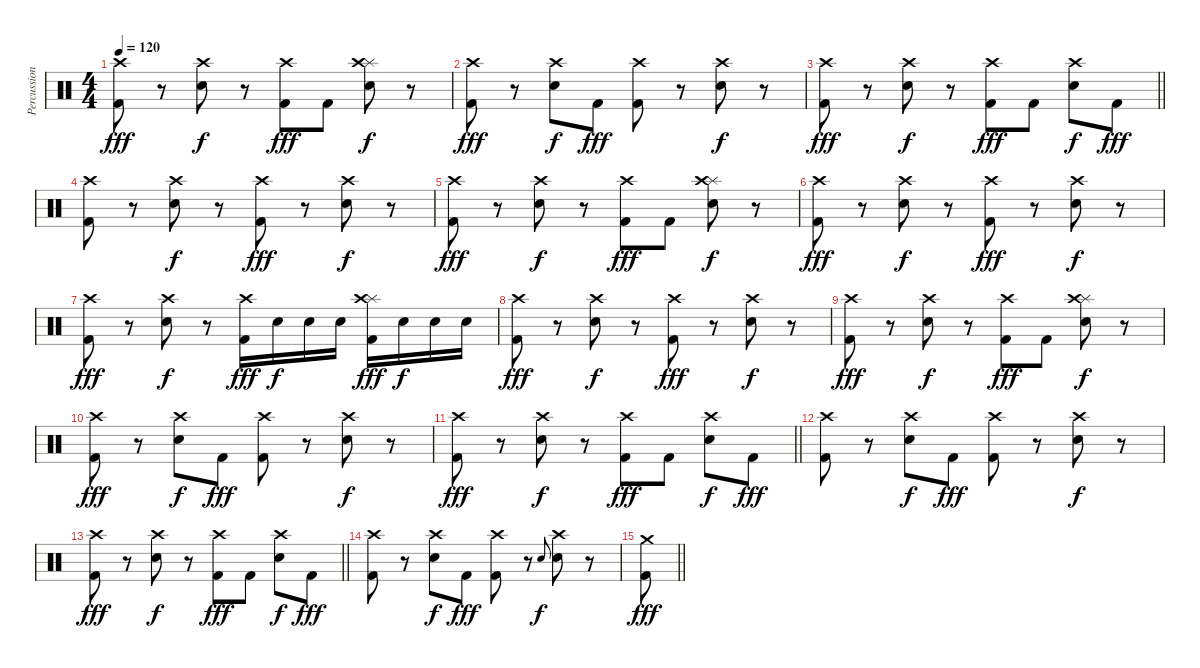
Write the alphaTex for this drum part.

\track ("Percussion" "Percussion") {instrument percussion}
\staff {score}
\articulation defaults
\ts (4 4)
\tempo 120
\clef neutral
\ks c
("Crash high (hit)" "Kick (hit) 2").8{dy fff} r.8 ("Electric Snare (hit)" "Crash high (hit)").8{dy f} r.8 ("Crash high (hit)" "Kick (hit) 2").8{dy fff} "Kick (hit) 2".8 ("Splash (hit)" "Electric Snare (hit)" "Crash high (hit)").8{dy f} r.8 |
("Crash high (hit)" "Kick (hit) 2").8{dy fff} r.8 ("Electric Snare (hit)" "Crash high (hit)").8{dy f} "Kick (hit) 2".8{dy fff} ("Crash high (hit)" "Kick (hit) 2").8 r.8 ("Electric Snare (hit)" "Crash high (hit)").8{dy f} r.8 |
\barLineRight lightlight
("Crash high (hit)" "Kick (hit) 2").8{dy fff} r.8 ("Electric Snare (hit)" "Crash high (hit)").8{dy f} r.8 ("Crash high (hit)" "Kick (hit) 2").8{dy fff} "Kick (hit) 2".8 ("Electric Snare (hit)" "Crash high (hit)").8{dy f} "Kick (hit) 2".8{dy fff} |
("Crash high (hit)" "Kick (hit) 2").8 r.8 ("Electric Snare (hit)" "Crash high (hit)").8{dy f} r.8 ("Crash high (hit)" "Kick (hit) 2").8{dy fff} r.8 ("Electric Snare (hit)" "Crash high (hit)").8{dy f} r.8 |
("Crash high (hit)" "Kick (hit) 2").8{dy fff} r.8 ("Electric Snare (hit)" "Crash high (hit)").8{dy f} r.8 ("Crash high (hit)" "Kick (hit) 2").8{dy fff} "Kick (hit) 2".8 ("Splash (hit)" "Electric Snare (hit)" "Crash high (hit)").8{dy f} r.8 |
("Crash high (hit)" "Kick (hit) 2").8{dy fff} r.8 ("Electric Snare (hit)" "Crash high (hit)").8{dy f} r.8 ("Crash high (hit)" "Kick (hit) 2").8{dy fff} r.8 ("Electric Snare (hit)" "Crash high (hit)").8{dy f} r.8 |
("Crash high (hit)" "Kick (hit) 2").8{dy fff} r.8 ("Electric Snare (hit)" "Crash high (hit)").8{dy f} r.8 ("Crash high (hit)" "Kick (hit) 2").16{dy fff} "Snare (hit) 2".16{dy f} "Electric Snare (hit)".16 "Snare (hit) 2".16 ("Splash (hit)" "Crash high (hit)" "Kick (hit) 2").16{dy fff} "Snare (hit) 2".16{dy f} "Electric Snare (hit)".16 "Snare (hit) 2".16 |
("Crash high (hit)" "Kick (hit) 2").8{dy fff} r.8 ("Electric Snare (hit)" "Crash high (hit)").8{dy f} r.8 ("Crash high (hit)" "Kick (hit) 2").8{dy fff} r.8 ("Electric Snare (hit)" "Crash high (hit)").8{dy f} r.8 |
("Crash high (hit)" "Kick (hit) 2").8{dy fff} r.8 ("Electric Snare (hit)" "Crash high (hit)").8{dy f} r.8 ("Crash high (hit)" "Kick (hit) 2").8{dy fff} "Kick (hit) 2".8 ("Splash (hit)" "Electric Snare (hit)" "Crash high (hit)").8{dy f} r.8 |
("Crash high (hit)" "Kick (hit) 2").8{dy fff} r.8 ("Electric Snare (hit)" "Crash high (hit)").8{dy f} "Kick (hit) 2".8{dy fff} ("Crash high (hit)" "Kick (hit) 2").8 r.8 ("Electric Snare (hit)" "Crash high (hit)").8{dy f} r.8 |
\barLineRight lightlight
("Crash high (hit)" "Kick (hit) 2").8{dy fff} r.8 ("Electric Snare (hit)" "Crash high (hit)").8{dy f} r.8 ("Crash high (hit)" "Kick (hit) 2").8{dy fff} "Kick (hit) 2".8 ("Electric Snare (hit)" "Crash high (hit)").8{dy f} "Kick (hit) 2".8{dy fff} |
("Crash high (hit)" "Kick (hit) 2").8 r.8 ("Electric Snare (hit)" "Crash high (hit)").8{dy f} "Kick (hit) 2".8{dy fff} ("Crash high (hit)" "Kick (hit) 2").8 r.8 ("Electric Snare (hit)" "Crash high (hit)").8{dy f} r.8 |
\barLineRight lightlight
("Crash high (hit)" "Kick (hit) 2").8{dy fff} r.8 ("Electric Snare (hit)" "Crash high (hit)").8{dy f} r.8 ("Crash high (hit)" "Kick (hit) 2").8{dy fff} "Kick (hit) 2".8 ("Electric Snare (hit)" "Crash high (hit)").8{dy f} "Kick (hit) 2".8{dy fff} |
("Crash high (hit)" "Kick (hit) 2").8 r.8 ("Electric Snare (hit)" "Crash high (hit)").8{dy f} "Kick (hit) 2".8{dy fff} ("Crash high (hit)" "Kick (hit) 2").8 r.8 "Electric Snare (hit)".8{gr onbeat dy f} ("Electric Snare (hit)" "Crash high (hit)").8 r.8 |
\barLineRight lightlight
("Crash medium (hit)" "Kick (hit) 2").8{dy fff}
